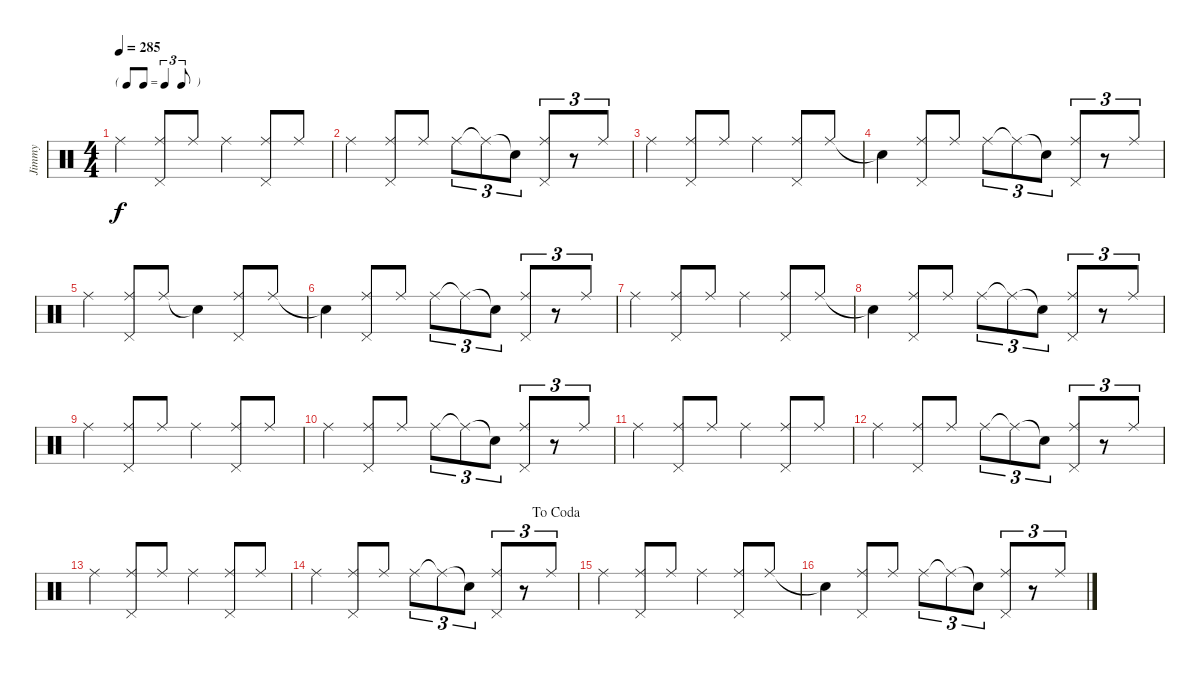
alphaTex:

\track ("Jimmy" "Jimmy") {instrument percussion}
\staff {score}
\articulation defaults
\ts (4 4)
\tf triplet8th
\tempo 285
\clef neutral
\ks c "Ride (middle)".4{dy f}
("Ride (middle)" "Pedal Hi-Hat (hit)").8 "Ride (middle)".8 "Ride (middle)".4 ("Ride (middle)" "Pedal Hi-Hat (hit)").8 "Ride (middle)".8 |
"Ride (middle)".4 ("Ride (middle)" "Pedal Hi-Hat (hit)").8 "Ride (middle)".8 "Ride (middle)".8{tu (3 2)} "Ride (middle)"{t}.8{tu (3 2)} "Snare (hit)"{t}.8{tu (3 2)} ("Ride (middle)" "Pedal Hi-Hat (hit)").8{tu (3 2)} r.8{tu (3 2)} "Ride (middle)".8{tu (3 2)} |
"Ride (middle)".4 ("Ride (middle)" "Pedal Hi-Hat (hit)").8 "Ride (middle)".8 "Ride (middle)".4 ("Ride (middle)" "Pedal Hi-Hat (hit)").8 "Ride (middle)".8 |
"Snare (hit)"{t}.4 ("Ride (middle)" "Pedal Hi-Hat (hit)").8 "Ride (middle)".8 "Ride (middle)".8{tu (3 2)} "Ride (middle)"{t}.8{tu (3 2)} "Snare (hit)"{t}.8{tu (3 2)} ("Ride (middle)" "Pedal Hi-Hat (hit)").8{tu (3 2)} r.8{tu (3 2)} "Ride (middle)".8{tu (3 2)} |
"Ride (middle)".4 ("Ride (middle)" "Pedal Hi-Hat (hit)").8 "Ride (middle)".8 "Snare (hit)"{t}.4 ("Ride (middle)" "Pedal Hi-Hat (hit)").8 "Ride (middle)".8 |
"Snare (hit)"{t}.4 ("Ride (middle)" "Pedal Hi-Hat (hit)").8 "Ride (middle)".8 "Ride (middle)".8{tu (3 2)} "Ride (middle)"{t}.8{tu (3 2)} "Snare (hit)"{t}.8{tu (3 2)} ("Ride (middle)" "Pedal Hi-Hat (hit)").8{tu (3 2)} r.8{tu (3 2)} "Ride (middle)".8{tu (3 2)} |
"Ride (middle)".4 ("Ride (middle)" "Pedal Hi-Hat (hit)").8 "Ride (middle)".8 "Ride (middle)".4 ("Ride (middle)" "Pedal Hi-Hat (hit)").8 "Ride (middle)".8 |
"Snare (hit)"{t}.4 ("Ride (middle)" "Pedal Hi-Hat (hit)").8 "Ride (middle)".8 "Ride (middle)".8{tu (3 2)} "Ride (middle)"{t}.8{tu (3 2)} "Snare (hit)"{t}.8{tu (3 2)} ("Ride (middle)" "Pedal Hi-Hat (hit)").8{tu (3 2)} r.8{tu (3 2)} "Ride (middle)".8{tu (3 2)} |
"Ride (middle)".4 ("Ride (middle)" "Pedal Hi-Hat (hit)").8 "Ride (middle)".8 "Ride (middle)".4 ("Ride (middle)" "Pedal Hi-Hat (hit)").8 "Ride (middle)".8 |
"Ride (middle)".4 ("Ride (middle)" "Pedal Hi-Hat (hit)").8 "Ride (middle)".8 "Ride (middle)".8{tu (3 2)} "Ride (middle)"{t}.8{tu (3 2)} "Snare (hit)"{t}.8{tu (3 2)} ("Ride (middle)" "Pedal Hi-Hat (hit)").8{tu (3 2)} r.8{tu (3 2)} "Ride (middle)".8{tu (3 2)} |
"Ride (middle)".4 ("Ride (middle)" "Pedal Hi-Hat (hit)").8 "Ride (middle)".8 "Ride (middle)".4 ("Ride (middle)" "Pedal Hi-Hat (hit)").8 "Ride (middle)".8 |
"Ride (middle)".4 ("Ride (middle)" "Pedal Hi-Hat (hit)").8 "Ride (middle)".8 "Ride (middle)".8{tu (3 2)} "Ride (middle)"{t}.8{tu (3 2)} "Snare (hit)"{t}.8{tu (3 2)} ("Ride (middle)" "Pedal Hi-Hat (hit)").8{tu (3 2)} r.8{tu (3 2)} "Ride (middle)".8{tu (3 2)} |
"Ride (middle)".4 ("Ride (middle)" "Pedal Hi-Hat (hit)").8 "Ride (middle)".8 "Ride (middle)".4 ("Ride (middle)" "Pedal Hi-Hat (hit)").8 "Ride (middle)".8 |
\jump dacoda "Ride (middle)".4
("Ride (middle)" "Pedal Hi-Hat (hit)").8 "Ride (middle)".8 "Ride (middle)".8{tu (3 2)} "Ride (middle)"{t}.8{tu (3 2)} "Snare (hit)"{t}.8{tu (3 2)} ("Ride (middle)" "Pedal Hi-Hat (hit)").8{tu (3 2)} r.8{tu (3 2)} "Ride (middle)".8{tu (3 2)} |
"Ride (middle)".4 ("Ride (middle)" "Pedal Hi-Hat (hit)").8 "Ride (middle)".8 "Ride (middle)".4 ("Ride (middle)" "Pedal Hi-Hat (hit)").8 "Ride (middle)".8 |
"Snare (hit)"{t}.4 ("Ride (middle)" "Pedal Hi-Hat (hit)").8 "Ride (middle)".8 "Ride (middle)".8{tu (3 2)} "Ride (middle)"{t}.8{tu (3 2)} "Snare (hit)"{t}.8{tu (3 2)} ("Ride (middle)" "Pedal Hi-Hat (hit)").8{tu (3 2)} r.8{tu (3 2)} "Ride (middle)".8{tu (3 2)}
